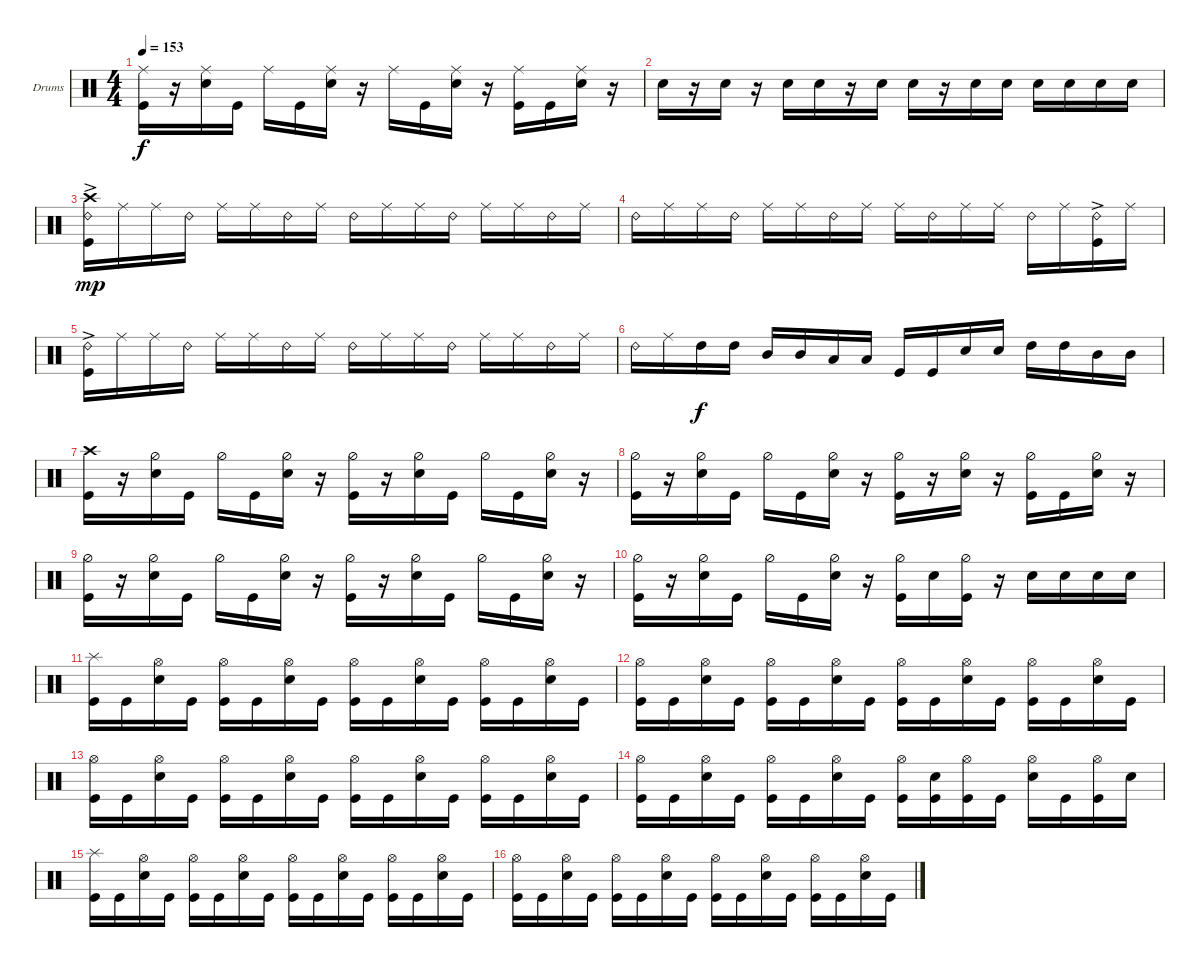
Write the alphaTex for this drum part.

\bracketExtendMode groupsimilarinstruments
\firstSystemTrackNameOrientation horizontal
\otherSystemsTrackNameOrientation horizontal
\track ("Drumkit" "Drums") {instrument percussion}
\staff {score}
\articulation defaults
\ts (4 4)
\tempo 153
\clef neutral
\ks c
("Kick (hit)" "Ride (middle)").16{dy f} r.16 ("Snare (hit) 2" "Ride (middle)").16 "Kick (hit)".16 "Ride (middle)".16 "Kick (hit)".16 ("Snare (hit) 2" "Ride (middle)").16 r.16 "Ride (middle)".16 "Kick (hit)".16 ("Snare (hit) 2" "Ride (middle)").16 r.16 ("Kick (hit)" "Ride (middle)").16 "Kick (hit)".16 ("Snare (hit) 2" "Ride (middle)").16 r.16 |
"Snare (hit) 2".16 r.16 "Snare (hit) 2".16 r.16 "Snare (hit) 2".16 "Snare (hit) 2".16 r.16 "Snare (hit) 2".16 "Snare (hit) 2".16 r.16 "Snare (hit) 2".16 "Snare (hit) 2".16 "Snare (hit) 2".16 "Snare (hit) 2".16 "Snare (hit) 2".16 "Snare (hit) 2".16 |
("Ride (bell) 2" "Crash high (hit)" "Kick (hit)"{ac}).16{dy mp} "Ride (middle)".16 "Ride (middle)".16 "Ride (bell) 2".16 "Ride (middle)".16 "Ride (middle)".16 "Ride (bell) 2".16 "Ride (middle)".16 "Ride (bell) 2".16 "Ride (middle)".16 "Ride (middle)".16 "Ride (bell) 2".16 "Ride (middle)".16 "Ride (middle)".16 "Ride (bell) 2".16 "Ride (middle)".16 |
"Ride (bell) 2".16 "Ride (middle)".16 "Ride (middle)".16 "Ride (bell) 2".16 "Ride (middle)".16 "Ride (middle)".16 "Ride (bell) 2".16 "Ride (middle)".16 "Ride (middle)".16 "Ride (bell) 2".16 "Ride (middle)".16 "Ride (middle)".16 "Ride (bell) 2".16 "Ride (middle)".16 ("Ride (bell) 2" "Kick (hit)"{ac}).16 "Ride (middle)".16 |
("Ride (bell) 2" "Kick (hit)"{ac}).16 "Ride (middle)".16 "Ride (middle)".16 "Ride (bell) 2".16 "Ride (middle)".16 "Ride (middle)".16 "Ride (bell) 2".16 "Ride (middle)".16 "Ride (bell) 2".16 "Ride (middle)".16 "Ride (middle)".16 "Ride (bell) 2".16 "Ride (middle)".16 "Ride (middle)".16 "Ride (bell) 2".16 "Ride (middle)".16 |
"Ride (bell) 2".16 "Ride (middle)".16 "High Tom (hit)".16{dy f} "High Tom (hit)".16 "Mid Tom (hit)".16 "Mid Tom (hit)".16 "Low Tom (hit)".16 "Low Tom (hit)".16 "Kick (hit)".16 "Kick (hit)".16 "Snare (hit) 2".16 "Snare (hit) 2".16 "High Tom (hit)".16 "High Tom (hit)".16 "Mid Tom (hit)".16 "Mid Tom (hit)".16 |
("Kick (hit)" "Crash high (hit)").16 r.16 ("Snare (hit) 2" "Hi-Hat (half)").16 "Kick (hit)".16 "Hi-Hat (half)".16 "Kick (hit)".16 ("Snare (hit) 2" "Hi-Hat (half)").16 r.16 ("Kick (hit)" "Hi-Hat (half)").16 r.16 ("Snare (hit) 2" "Hi-Hat (half)").16 "Kick (hit)".16 "Hi-Hat (half)".16 "Kick (hit)".16 ("Snare (hit) 2" "Hi-Hat (half)").16 r.16 |
("Kick (hit)" "Hi-Hat (half)").16 r.16 ("Snare (hit) 2" "Hi-Hat (half)").16 "Kick (hit)".16 "Hi-Hat (half)".16 "Kick (hit)".16 ("Snare (hit) 2" "Hi-Hat (half)").16 r.16 ("Kick (hit)" "Hi-Hat (half)").16 r.16 ("Snare (hit) 2" "Hi-Hat (half)").16 r.16 ("Kick (hit)" "Hi-Hat (half)").16 "Kick (hit)".16 ("Snare (hit) 2" "Hi-Hat (half)").16 r.16 |
("Kick (hit)" "Hi-Hat (half)").16 r.16 ("Snare (hit) 2" "Hi-Hat (half)").16 "Kick (hit)".16 "Hi-Hat (half)".16 "Kick (hit)".16 ("Snare (hit) 2" "Hi-Hat (half)").16 r.16 ("Kick (hit)" "Hi-Hat (half)").16 r.16 ("Snare (hit) 2" "Hi-Hat (half)").16 "Kick (hit)".16 "Hi-Hat (half)".16 "Kick (hit)".16 ("Snare (hit) 2" "Hi-Hat (half)").16 r.16 |
("Kick (hit)" "Hi-Hat (half)").16 r.16 ("Snare (hit) 2" "Hi-Hat (half)").16 "Kick (hit)".16 "Hi-Hat (half)".16 "Kick (hit)".16 ("Snare (hit) 2" "Hi-Hat (half)").16 r.16 ("Kick (hit)" "Hi-Hat (half)").16 "Snare (hit) 2".16 ("Hi-Hat (half)" "Kick (hit)").16 r.16 "Snare (hit) 2".16 "Snare (hit) 2".16 "Snare (hit) 2".16 "Snare (hit) 2".16 |
("Kick (hit)" "Splash (hit)").16 "Kick (hit)".16 ("Snare (hit) 2" "Hi-Hat (open)").16 "Kick (hit)".16 ("Kick (hit)" "Hi-Hat (open)").16 "Kick (hit)".16 ("Snare (hit) 2" "Hi-Hat (open)").16 "Kick (hit)".16 ("Kick (hit)" "Hi-Hat (open)").16 "Kick (hit)".16 ("Snare (hit) 2" "Hi-Hat (open)").16 "Kick (hit)".16 ("Kick (hit)" "Hi-Hat (open)").16 "Kick (hit)".16 ("Snare (hit) 2" "Hi-Hat (open)").16 "Kick (hit)".16 |
("Kick (hit)" "Hi-Hat (open)").16 "Kick (hit)".16 ("Snare (hit) 2" "Hi-Hat (open)").16 "Kick (hit)".16 ("Kick (hit)" "Hi-Hat (open)").16 "Kick (hit)".16 ("Snare (hit) 2" "Hi-Hat (open)").16 "Kick (hit)".16 ("Kick (hit)" "Hi-Hat (open)").16 "Kick (hit)".16 ("Snare (hit) 2" "Hi-Hat (open)").16 "Kick (hit)".16 ("Kick (hit)" "Hi-Hat (open)").16 "Kick (hit)".16 ("Snare (hit) 2" "Hi-Hat (open)").16 "Kick (hit)".16 |
("Kick (hit)" "Hi-Hat (open)").16 "Kick (hit)".16 ("Snare (hit) 2" "Hi-Hat (open)").16 "Kick (hit)".16 ("Kick (hit)" "Hi-Hat (open)").16 "Kick (hit)".16 ("Snare (hit) 2" "Hi-Hat (open)").16 "Kick (hit)".16 ("Kick (hit)" "Hi-Hat (open)").16 "Kick (hit)".16 ("Snare (hit) 2" "Hi-Hat (open)").16 "Kick (hit)".16 ("Kick (hit)" "Hi-Hat (open)").16 "Kick (hit)".16 ("Snare (hit) 2" "Hi-Hat (open)").16 "Kick (hit)".16 |
("Kick (hit)" "Hi-Hat (open)").16 "Kick (hit)".16 ("Snare (hit) 2" "Hi-Hat (open)").16 "Kick (hit)".16 ("Kick (hit)" "Hi-Hat (open)").16 "Kick (hit)".16 ("Snare (hit) 2" "Hi-Hat (open)").16 "Kick (hit)".16 ("Kick (hit)" "Hi-Hat (open)").16 ("Kick (hit)" "Snare (hit) 2").16 ("Hi-Hat (open)" "Kick (hit)").16 "Kick (hit)".16 ("Hi-Hat (open)" "Snare (hit) 2").16 "Kick (hit)".16 ("Hi-Hat (open)" "Kick (hit)").16 "Snare (hit) 2".16 |
("Kick (hit)" "Splash (hit)").16 "Kick (hit)".16 ("Snare (hit) 2" "Hi-Hat (open)").16 "Kick (hit)".16 ("Kick (hit)" "Hi-Hat (open)").16 "Kick (hit)".16 ("Snare (hit) 2" "Hi-Hat (open)").16 "Kick (hit)".16 ("Kick (hit)" "Hi-Hat (open)").16 "Kick (hit)".16 ("Snare (hit) 2" "Hi-Hat (open)").16 "Kick (hit)".16 ("Kick (hit)" "Hi-Hat (open)").16 "Kick (hit)".16 ("Snare (hit) 2" "Hi-Hat (open)").16 "Kick (hit)".16 |
("Kick (hit)" "Hi-Hat (open)").16 "Kick (hit)".16 ("Snare (hit) 2" "Hi-Hat (open)").16 "Kick (hit)".16 ("Kick (hit)" "Hi-Hat (open)").16 "Kick (hit)".16 ("Snare (hit) 2" "Hi-Hat (open)").16 "Kick (hit)".16 ("Kick (hit)" "Hi-Hat (open)").16 "Kick (hit)".16 ("Snare (hit) 2" "Hi-Hat (open)").16 "Kick (hit)".16 ("Kick (hit)" "Hi-Hat (open)").16 "Kick (hit)".16 ("Snare (hit) 2" "Hi-Hat (open)").16 "Kick (hit)".16
